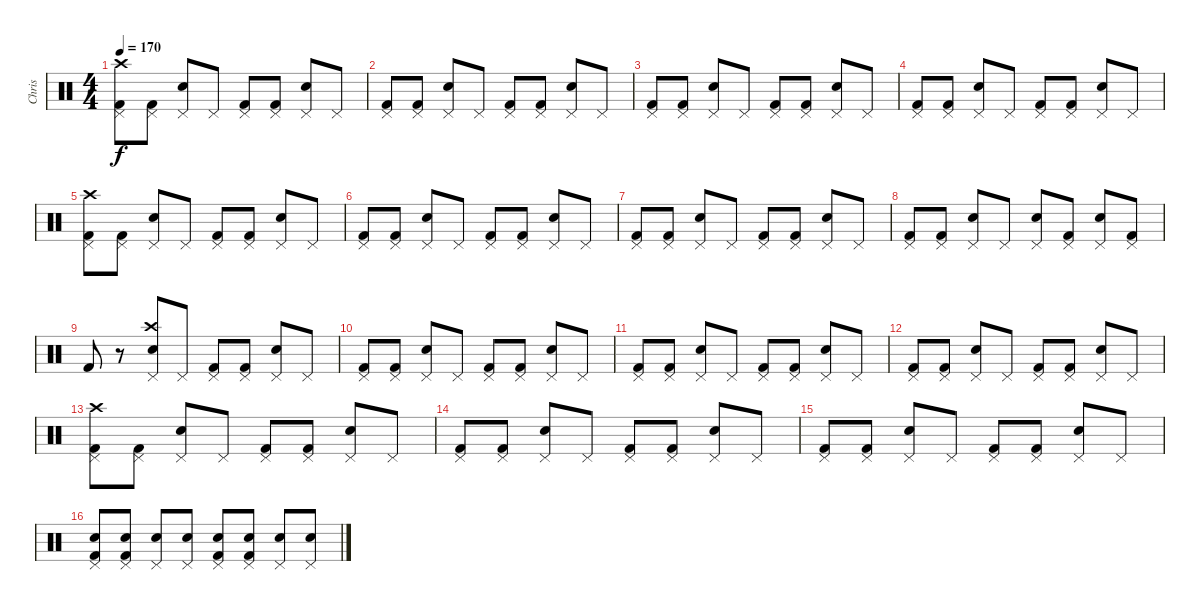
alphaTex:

\track ("Chris" "Chris") {instrument percussion}
\staff {score}
\articulation defaults
\ts (4 4)
\tempo 170
\clef neutral
\ks c
("Pedal Hi-Hat (hit)" "Kick (hit) 2" "Crash high (hit)").8{dy f} ("Pedal Hi-Hat (hit)" "Kick (hit) 2").8 ("Pedal Hi-Hat (hit)" "Electric Snare (hit)").8 "Pedal Hi-Hat (hit)".8 ("Pedal Hi-Hat (hit)" "Kick (hit) 2").8 ("Pedal Hi-Hat (hit)" "Kick (hit) 2").8 ("Pedal Hi-Hat (hit)" "Electric Snare (hit)").8 "Pedal Hi-Hat (hit)".8 |
("Pedal Hi-Hat (hit)" "Kick (hit) 2").8 ("Pedal Hi-Hat (hit)" "Kick (hit) 2").8 ("Pedal Hi-Hat (hit)" "Electric Snare (hit)").8 "Pedal Hi-Hat (hit)".8 ("Pedal Hi-Hat (hit)" "Kick (hit) 2").8 ("Pedal Hi-Hat (hit)" "Kick (hit) 2").8 ("Pedal Hi-Hat (hit)" "Electric Snare (hit)").8 "Pedal Hi-Hat (hit)".8 |
("Pedal Hi-Hat (hit)" "Kick (hit) 2").8 ("Pedal Hi-Hat (hit)" "Kick (hit) 2").8 ("Pedal Hi-Hat (hit)" "Electric Snare (hit)").8 "Pedal Hi-Hat (hit)".8 ("Pedal Hi-Hat (hit)" "Kick (hit) 2").8 ("Pedal Hi-Hat (hit)" "Kick (hit) 2").8 ("Pedal Hi-Hat (hit)" "Electric Snare (hit)").8 "Pedal Hi-Hat (hit)".8 |
("Pedal Hi-Hat (hit)" "Kick (hit) 2").8 ("Pedal Hi-Hat (hit)" "Kick (hit) 2").8 ("Pedal Hi-Hat (hit)" "Electric Snare (hit)").8 "Pedal Hi-Hat (hit)".8 ("Pedal Hi-Hat (hit)" "Kick (hit) 2").8 ("Pedal Hi-Hat (hit)" "Kick (hit) 2").8 ("Pedal Hi-Hat (hit)" "Electric Snare (hit)").8 "Pedal Hi-Hat (hit)".8 |
("Pedal Hi-Hat (hit)" "Kick (hit) 2" "Crash high (hit)").8 ("Pedal Hi-Hat (hit)" "Kick (hit) 2").8 ("Pedal Hi-Hat (hit)" "Electric Snare (hit)").8 "Pedal Hi-Hat (hit)".8 ("Pedal Hi-Hat (hit)" "Kick (hit) 2").8 ("Pedal Hi-Hat (hit)" "Kick (hit) 2").8 ("Pedal Hi-Hat (hit)" "Electric Snare (hit)").8 "Pedal Hi-Hat (hit)".8 |
("Pedal Hi-Hat (hit)" "Kick (hit) 2").8 ("Pedal Hi-Hat (hit)" "Kick (hit) 2").8 ("Pedal Hi-Hat (hit)" "Electric Snare (hit)").8 "Pedal Hi-Hat (hit)".8 ("Pedal Hi-Hat (hit)" "Kick (hit) 2").8 ("Pedal Hi-Hat (hit)" "Kick (hit) 2").8 ("Pedal Hi-Hat (hit)" "Electric Snare (hit)").8 "Pedal Hi-Hat (hit)".8 |
("Pedal Hi-Hat (hit)" "Kick (hit) 2").8 ("Pedal Hi-Hat (hit)" "Kick (hit) 2").8 ("Pedal Hi-Hat (hit)" "Electric Snare (hit)").8 "Pedal Hi-Hat (hit)".8 ("Pedal Hi-Hat (hit)" "Kick (hit) 2").8 ("Pedal Hi-Hat (hit)" "Kick (hit) 2").8 ("Pedal Hi-Hat (hit)" "Electric Snare (hit)").8 "Pedal Hi-Hat (hit)".8 |
("Pedal Hi-Hat (hit)" "Kick (hit) 2").8 ("Pedal Hi-Hat (hit)" "Kick (hit) 2").8 ("Pedal Hi-Hat (hit)" "Electric Snare (hit)").8 "Pedal Hi-Hat (hit)".8 ("Pedal Hi-Hat (hit)" "Electric Snare (hit)").8 ("Pedal Hi-Hat (hit)" "Kick (hit) 2").8 ("Pedal Hi-Hat (hit)" "Electric Snare (hit)").8 ("Pedal Hi-Hat (hit)" "Kick (hit) 2").8 |
"Kick (hit) 2".8 r.8 ("Pedal Hi-Hat (hit)" "Electric Snare (hit)" "Crash high (hit)").8 "Pedal Hi-Hat (hit)".8 ("Pedal Hi-Hat (hit)" "Kick (hit) 2").8 ("Pedal Hi-Hat (hit)" "Kick (hit) 2").8 ("Pedal Hi-Hat (hit)" "Electric Snare (hit)").8 "Pedal Hi-Hat (hit)".8 |
("Pedal Hi-Hat (hit)" "Kick (hit) 2").8 ("Pedal Hi-Hat (hit)" "Kick (hit) 2").8 ("Pedal Hi-Hat (hit)" "Electric Snare (hit)").8 "Pedal Hi-Hat (hit)".8 ("Pedal Hi-Hat (hit)" "Kick (hit) 2").8 ("Pedal Hi-Hat (hit)" "Kick (hit) 2").8 ("Pedal Hi-Hat (hit)" "Electric Snare (hit)").8 "Pedal Hi-Hat (hit)".8 |
("Pedal Hi-Hat (hit)" "Kick (hit) 2").8 ("Pedal Hi-Hat (hit)" "Kick (hit) 2").8 ("Pedal Hi-Hat (hit)" "Electric Snare (hit)").8 "Pedal Hi-Hat (hit)".8 ("Pedal Hi-Hat (hit)" "Kick (hit) 2").8 ("Pedal Hi-Hat (hit)" "Kick (hit) 2").8 ("Pedal Hi-Hat (hit)" "Electric Snare (hit)").8 "Pedal Hi-Hat (hit)".8 |
("Pedal Hi-Hat (hit)" "Kick (hit) 2").8 ("Pedal Hi-Hat (hit)" "Kick (hit) 2").8 ("Pedal Hi-Hat (hit)" "Electric Snare (hit)").8 "Pedal Hi-Hat (hit)".8 ("Pedal Hi-Hat (hit)" "Kick (hit) 2").8 ("Pedal Hi-Hat (hit)" "Kick (hit) 2").8 ("Pedal Hi-Hat (hit)" "Electric Snare (hit)").8 "Pedal Hi-Hat (hit)".8 |
("Pedal Hi-Hat (hit)" "Kick (hit) 2" "Crash high (hit)").8 ("Pedal Hi-Hat (hit)" "Kick (hit) 2").8 ("Pedal Hi-Hat (hit)" "Electric Snare (hit)").8 "Pedal Hi-Hat (hit)".8 ("Pedal Hi-Hat (hit)" "Kick (hit) 2").8 ("Pedal Hi-Hat (hit)" "Kick (hit) 2").8 ("Pedal Hi-Hat (hit)" "Electric Snare (hit)").8 "Pedal Hi-Hat (hit)".8 |
("Pedal Hi-Hat (hit)" "Kick (hit) 2").8 ("Pedal Hi-Hat (hit)" "Kick (hit) 2").8 ("Pedal Hi-Hat (hit)" "Electric Snare (hit)").8 "Pedal Hi-Hat (hit)".8 ("Pedal Hi-Hat (hit)" "Kick (hit) 2").8 ("Pedal Hi-Hat (hit)" "Kick (hit) 2").8 ("Pedal Hi-Hat (hit)" "Electric Snare (hit)").8 "Pedal Hi-Hat (hit)".8 |
("Pedal Hi-Hat (hit)" "Kick (hit) 2").8 ("Pedal Hi-Hat (hit)" "Kick (hit) 2").8 ("Pedal Hi-Hat (hit)" "Electric Snare (hit)").8 "Pedal Hi-Hat (hit)".8 ("Pedal Hi-Hat (hit)" "Kick (hit) 2").8 ("Pedal Hi-Hat (hit)" "Kick (hit) 2").8 ("Pedal Hi-Hat (hit)" "Electric Snare (hit)").8 "Pedal Hi-Hat (hit)".8 |
("Pedal Hi-Hat (hit)" "Electric Snare (hit)" "Kick (hit) 2").8 ("Pedal Hi-Hat (hit)" "Electric Snare (hit)" "Kick (hit) 2").8 ("Pedal Hi-Hat (hit)" "Electric Snare (hit)").8 ("Pedal Hi-Hat (hit)" "Electric Snare (hit)").8 ("Pedal Hi-Hat (hit)" "Electric Snare (hit)" "Kick (hit) 2").8 ("Pedal Hi-Hat (hit)" "Electric Snare (hit)" "Kick (hit) 2").8 ("Pedal Hi-Hat (hit)" "Electric Snare (hit)").8 ("Pedal Hi-Hat (hit)" "Electric Snare (hit)").8
